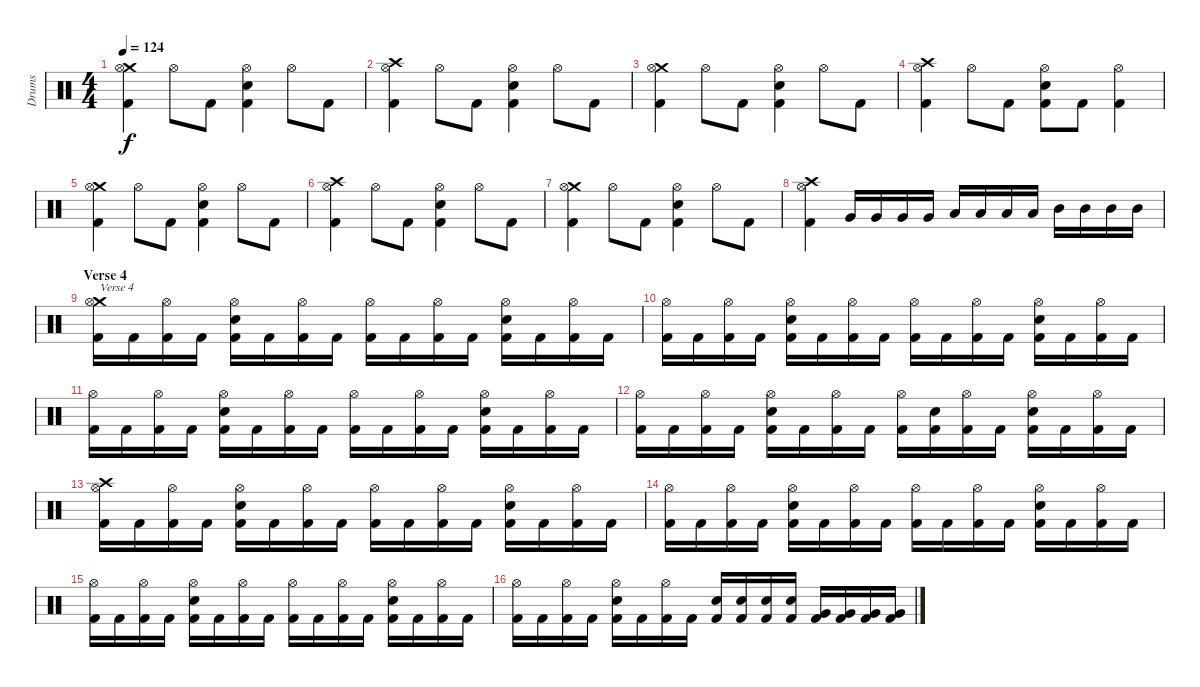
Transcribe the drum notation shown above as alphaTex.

\track ("Drums" "Drums") {instrument percussion}
\staff {score}
\articulation defaults
\ts (4 4)
\tempo 124
\clef neutral
\ks c
("Crash medium (hit)" "Hi-Hat (open)" "Kick (hit) 2").4{dy f} "Hi-Hat (open)".8 "Kick (hit) 2".8 ("Hi-Hat (open)" "Electric Snare (hit)" "Kick (hit) 2").4 "Hi-Hat (open)".8 "Kick (hit) 2".8 |
("Crash high (hit)" "Hi-Hat (open)" "Kick (hit) 2").4 "Hi-Hat (open)".8 "Kick (hit) 2".8 ("Hi-Hat (open)" "Electric Snare (hit)" "Kick (hit) 2").4 "Hi-Hat (open)".8 "Kick (hit) 2".8 |
("Crash medium (hit)" "Hi-Hat (open)" "Kick (hit) 2").4 "Hi-Hat (open)".8 "Kick (hit) 2".8 ("Hi-Hat (open)" "Electric Snare (hit)" "Kick (hit) 2").4 "Hi-Hat (open)".8 "Kick (hit) 2".8 |
("Crash high (hit)" "Hi-Hat (open)" "Kick (hit) 2").4 "Hi-Hat (open)".8 "Kick (hit) 2".8 ("Hi-Hat (open)" "Electric Snare (hit)" "Kick (hit) 2").8 "Kick (hit) 2".8 ("Hi-Hat (open)" "Kick (hit) 2").4 |
("Crash medium (hit)" "Hi-Hat (open)" "Kick (hit) 2").4 "Hi-Hat (open)".8 "Kick (hit) 2".8 ("Hi-Hat (open)" "Electric Snare (hit)" "Kick (hit) 2").4 "Hi-Hat (open)".8 "Kick (hit) 2".8 |
("Crash high (hit)" "Hi-Hat (open)" "Kick (hit) 2").4 "Hi-Hat (open)".8 "Kick (hit) 2".8 ("Hi-Hat (open)" "Electric Snare (hit)" "Kick (hit) 2").4 "Hi-Hat (open)".8 "Kick (hit) 2".8 |
("Crash medium (hit)" "Hi-Hat (open)" "Kick (hit) 2").4 "Hi-Hat (open)".8 "Kick (hit) 2".8 ("Hi-Hat (open)" "Electric Snare (hit)" "Kick (hit) 2").4 "Hi-Hat (open)".8 "Kick (hit) 2".8 |
("Crash high (hit)" "Hi-Hat (open)" "Kick (hit) 2").4 "Very Low Tom (hit)".16 "Very Low Tom (hit)".16 "Very Low Tom (hit)".16 "Very Low Tom (hit)".16 "Low Tom (hit)".16 "Low Tom (hit)".16 "Low Tom (hit)".16 "Low Tom (hit)".16 "Mid Tom (hit)".16 "Mid Tom (hit)".16 "Mid Tom (hit)".16 "Mid Tom (hit)".16 |
\section ("" "Verse 4")
("Crash medium (hit)" "Hi-Hat (open)" "Kick (hit) 2").16{txt "Verse 4"} "Kick (hit) 2".16 ("Hi-Hat (open)" "Kick (hit) 2").16 "Kick (hit) 2".16 ("Hi-Hat (open)" "Electric Snare (hit)" "Kick (hit) 2").16 "Kick (hit) 2".16 ("Hi-Hat (open)" "Kick (hit) 2").16 "Kick (hit) 2".16 ("Hi-Hat (open)" "Kick (hit) 2").16 "Kick (hit) 2".16 ("Hi-Hat (open)" "Kick (hit) 2").16 "Kick (hit) 2".16 ("Hi-Hat (open)" "Electric Snare (hit)" "Kick (hit) 2").16 "Kick (hit) 2".16 ("Hi-Hat (open)" "Kick (hit) 2").16 "Kick (hit) 2".16 |
("Hi-Hat (open)" "Kick (hit) 2").16 "Kick (hit) 2".16 ("Hi-Hat (open)" "Kick (hit) 2").16 "Kick (hit) 2".16 ("Hi-Hat (open)" "Electric Snare (hit)" "Kick (hit) 2").16 "Kick (hit) 2".16 ("Hi-Hat (open)" "Kick (hit) 2").16 "Kick (hit) 2".16 ("Hi-Hat (open)" "Kick (hit) 2").16 "Kick (hit) 2".16 ("Hi-Hat (open)" "Kick (hit) 2").16 "Kick (hit) 2".16 ("Hi-Hat (open)" "Electric Snare (hit)" "Kick (hit) 2").16 "Kick (hit) 2".16 ("Hi-Hat (open)" "Kick (hit) 2").16 "Kick (hit) 2".16 |
("Hi-Hat (open)" "Kick (hit) 2").16 "Kick (hit) 2".16 ("Hi-Hat (open)" "Kick (hit) 2").16 "Kick (hit) 2".16 ("Hi-Hat (open)" "Electric Snare (hit)" "Kick (hit) 2").16 "Kick (hit) 2".16 ("Hi-Hat (open)" "Kick (hit) 2").16 "Kick (hit) 2".16 ("Hi-Hat (open)" "Kick (hit) 2").16 "Kick (hit) 2".16 ("Hi-Hat (open)" "Kick (hit) 2").16 "Kick (hit) 2".16 ("Hi-Hat (open)" "Electric Snare (hit)" "Kick (hit) 2").16 "Kick (hit) 2".16 ("Hi-Hat (open)" "Kick (hit) 2").16 "Kick (hit) 2".16 |
("Hi-Hat (open)" "Kick (hit) 2").16 "Kick (hit) 2".16 ("Hi-Hat (open)" "Kick (hit) 2").16 "Kick (hit) 2".16 ("Hi-Hat (open)" "Electric Snare (hit)" "Kick (hit) 2").16 "Kick (hit) 2".16 ("Hi-Hat (open)" "Kick (hit) 2").16 "Kick (hit) 2".16 ("Hi-Hat (open)" "Kick (hit) 2").16 ("Electric Snare (hit)" "Kick (hit) 2").16 ("Hi-Hat (open)" "Kick (hit) 2").16 "Kick (hit) 2".16 ("Hi-Hat (open)" "Electric Snare (hit)" "Kick (hit) 2").16 "Kick (hit) 2".16 ("Hi-Hat (open)" "Kick (hit) 2").16 "Kick (hit) 2".16 |
("Crash high (hit)" "Hi-Hat (open)" "Kick (hit) 2").16 "Kick (hit) 2".16 ("Hi-Hat (open)" "Kick (hit) 2").16 "Kick (hit) 2".16 ("Hi-Hat (open)" "Electric Snare (hit)" "Kick (hit) 2").16 "Kick (hit) 2".16 ("Hi-Hat (open)" "Kick (hit) 2").16 "Kick (hit) 2".16 ("Hi-Hat (open)" "Kick (hit) 2").16 "Kick (hit) 2".16 ("Hi-Hat (open)" "Kick (hit) 2").16 "Kick (hit) 2".16 ("Hi-Hat (open)" "Electric Snare (hit)" "Kick (hit) 2").16 "Kick (hit) 2".16 ("Hi-Hat (open)" "Kick (hit) 2").16 "Kick (hit) 2".16 |
("Hi-Hat (open)" "Kick (hit) 2").16 "Kick (hit) 2".16 ("Hi-Hat (open)" "Kick (hit) 2").16 "Kick (hit) 2".16 ("Hi-Hat (open)" "Electric Snare (hit)" "Kick (hit) 2").16 "Kick (hit) 2".16 ("Hi-Hat (open)" "Kick (hit) 2").16 "Kick (hit) 2".16 ("Hi-Hat (open)" "Kick (hit) 2").16 "Kick (hit) 2".16 ("Hi-Hat (open)" "Kick (hit) 2").16 "Kick (hit) 2".16 ("Hi-Hat (open)" "Electric Snare (hit)" "Kick (hit) 2").16 "Kick (hit) 2".16 ("Hi-Hat (open)" "Kick (hit) 2").16 "Kick (hit) 2".16 |
("Hi-Hat (open)" "Kick (hit) 2").16 "Kick (hit) 2".16 ("Hi-Hat (open)" "Kick (hit) 2").16 "Kick (hit) 2".16 ("Hi-Hat (open)" "Electric Snare (hit)" "Kick (hit) 2").16 "Kick (hit) 2".16 ("Hi-Hat (open)" "Kick (hit) 2").16 "Kick (hit) 2".16 ("Hi-Hat (open)" "Kick (hit) 2").16 "Kick (hit) 2".16 ("Hi-Hat (open)" "Kick (hit) 2").16 "Kick (hit) 2".16 ("Hi-Hat (open)" "Electric Snare (hit)" "Kick (hit) 2").16 "Kick (hit) 2".16 ("Hi-Hat (open)" "Kick (hit) 2").16 "Kick (hit) 2".16 |
("Hi-Hat (open)" "Kick (hit) 2").16 "Kick (hit) 2".16 ("Hi-Hat (open)" "Kick (hit) 2").16 "Kick (hit) 2".16 ("Hi-Hat (open)" "Electric Snare (hit)" "Kick (hit) 2").16 "Kick (hit) 2".16 ("Hi-Hat (open)" "Kick (hit) 2").16 "Kick (hit) 2".16 ("Electric Snare (hit)" "Kick (hit) 2").16 ("Electric Snare (hit)" "Kick (hit) 2").16 ("Electric Snare (hit)" "Kick (hit) 2").16 ("Electric Snare (hit)" "Kick (hit) 2").16 ("Very Low Tom (hit)" "Kick (hit) 2").16 ("Very Low Tom (hit)" "Kick (hit) 2").16 ("Very Low Tom (hit)" "Kick (hit) 2").16 ("Very Low Tom (hit)" "Kick (hit) 2").16
